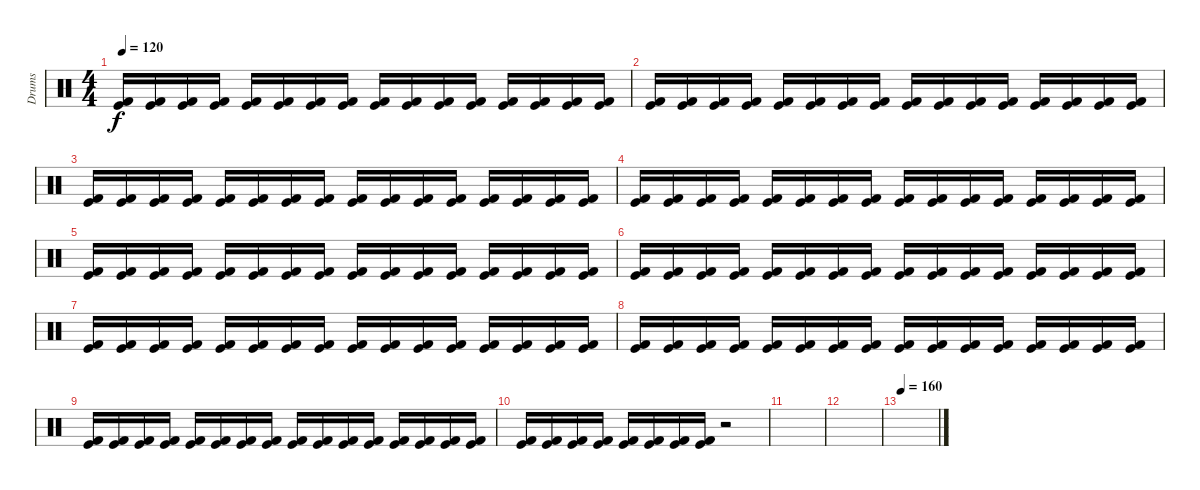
\track ("Drums" "Drums") {instrument percussion}
\staff {score}
\articulation defaults
\ts (4 4)
\tempo 120
\clef neutral
\ks c
("Kick (hit) 2" "Kick (hit)").16{dy f} ("Kick (hit) 2" "Kick (hit)").16 ("Kick (hit) 2" "Kick (hit)").16 ("Kick (hit) 2" "Kick (hit)").16 ("Kick (hit) 2" "Kick (hit)").16 ("Kick (hit) 2" "Kick (hit)").16 ("Kick (hit) 2" "Kick (hit)").16 ("Kick (hit) 2" "Kick (hit)").16 ("Kick (hit) 2" "Kick (hit)").16 ("Kick (hit) 2" "Kick (hit)").16 ("Kick (hit) 2" "Kick (hit)").16 ("Kick (hit) 2" "Kick (hit)").16 ("Kick (hit) 2" "Kick (hit)").16 ("Kick (hit) 2" "Kick (hit)").16 ("Kick (hit) 2" "Kick (hit)").16 ("Kick (hit) 2" "Kick (hit)").16 |
("Kick (hit) 2" "Kick (hit)").16 ("Kick (hit) 2" "Kick (hit)").16 ("Kick (hit) 2" "Kick (hit)").16 ("Kick (hit) 2" "Kick (hit)").16 ("Kick (hit) 2" "Kick (hit)").16 ("Kick (hit) 2" "Kick (hit)").16 ("Kick (hit) 2" "Kick (hit)").16 ("Kick (hit) 2" "Kick (hit)").16 ("Kick (hit) 2" "Kick (hit)").16 ("Kick (hit) 2" "Kick (hit)").16 ("Kick (hit) 2" "Kick (hit)").16 ("Kick (hit) 2" "Kick (hit)").16 ("Kick (hit) 2" "Kick (hit)").16 ("Kick (hit) 2" "Kick (hit)").16 ("Kick (hit) 2" "Kick (hit)").16 ("Kick (hit) 2" "Kick (hit)").16 |
("Kick (hit) 2" "Kick (hit)").16 ("Kick (hit) 2" "Kick (hit)").16 ("Kick (hit) 2" "Kick (hit)").16 ("Kick (hit) 2" "Kick (hit)").16 ("Kick (hit) 2" "Kick (hit)").16 ("Kick (hit) 2" "Kick (hit)").16 ("Kick (hit) 2" "Kick (hit)").16 ("Kick (hit) 2" "Kick (hit)").16 ("Kick (hit) 2" "Kick (hit)").16 ("Kick (hit) 2" "Kick (hit)").16 ("Kick (hit) 2" "Kick (hit)").16 ("Kick (hit) 2" "Kick (hit)").16 ("Kick (hit) 2" "Kick (hit)").16 ("Kick (hit) 2" "Kick (hit)").16 ("Kick (hit) 2" "Kick (hit)").16 ("Kick (hit) 2" "Kick (hit)").16 |
("Kick (hit) 2" "Kick (hit)").16 ("Kick (hit) 2" "Kick (hit)").16 ("Kick (hit) 2" "Kick (hit)").16 ("Kick (hit) 2" "Kick (hit)").16 ("Kick (hit) 2" "Kick (hit)").16 ("Kick (hit) 2" "Kick (hit)").16 ("Kick (hit) 2" "Kick (hit)").16 ("Kick (hit) 2" "Kick (hit)").16 ("Kick (hit) 2" "Kick (hit)").16 ("Kick (hit) 2" "Kick (hit)").16 ("Kick (hit) 2" "Kick (hit)").16 ("Kick (hit) 2" "Kick (hit)").16 ("Kick (hit) 2" "Kick (hit)").16 ("Kick (hit) 2" "Kick (hit)").16 ("Kick (hit) 2" "Kick (hit)").16 ("Kick (hit) 2" "Kick (hit)").16 |
("Kick (hit) 2" "Kick (hit)").16 ("Kick (hit) 2" "Kick (hit)").16 ("Kick (hit) 2" "Kick (hit)").16 ("Kick (hit) 2" "Kick (hit)").16 ("Kick (hit) 2" "Kick (hit)").16 ("Kick (hit) 2" "Kick (hit)").16 ("Kick (hit) 2" "Kick (hit)").16 ("Kick (hit) 2" "Kick (hit)").16 ("Kick (hit) 2" "Kick (hit)").16 ("Kick (hit) 2" "Kick (hit)").16 ("Kick (hit) 2" "Kick (hit)").16 ("Kick (hit) 2" "Kick (hit)").16 ("Kick (hit) 2" "Kick (hit)").16 ("Kick (hit) 2" "Kick (hit)").16 ("Kick (hit) 2" "Kick (hit)").16 ("Kick (hit) 2" "Kick (hit)").16 |
("Kick (hit) 2" "Kick (hit)").16 ("Kick (hit) 2" "Kick (hit)").16 ("Kick (hit) 2" "Kick (hit)").16 ("Kick (hit) 2" "Kick (hit)").16 ("Kick (hit) 2" "Kick (hit)").16 ("Kick (hit) 2" "Kick (hit)").16 ("Kick (hit) 2" "Kick (hit)").16 ("Kick (hit) 2" "Kick (hit)").16 ("Kick (hit) 2" "Kick (hit)").16 ("Kick (hit) 2" "Kick (hit)").16 ("Kick (hit) 2" "Kick (hit)").16 ("Kick (hit) 2" "Kick (hit)").16 ("Kick (hit) 2" "Kick (hit)").16 ("Kick (hit) 2" "Kick (hit)").16 ("Kick (hit) 2" "Kick (hit)").16 ("Kick (hit) 2" "Kick (hit)").16 |
("Kick (hit) 2" "Kick (hit)").16 ("Kick (hit) 2" "Kick (hit)").16 ("Kick (hit) 2" "Kick (hit)").16 ("Kick (hit) 2" "Kick (hit)").16 ("Kick (hit) 2" "Kick (hit)").16 ("Kick (hit) 2" "Kick (hit)").16 ("Kick (hit) 2" "Kick (hit)").16 ("Kick (hit) 2" "Kick (hit)").16 ("Kick (hit) 2" "Kick (hit)").16 ("Kick (hit) 2" "Kick (hit)").16 ("Kick (hit) 2" "Kick (hit)").16 ("Kick (hit) 2" "Kick (hit)").16 ("Kick (hit) 2" "Kick (hit)").16 ("Kick (hit) 2" "Kick (hit)").16 ("Kick (hit) 2" "Kick (hit)").16 ("Kick (hit) 2" "Kick (hit)").16 |
("Kick (hit) 2" "Kick (hit)").16 ("Kick (hit) 2" "Kick (hit)").16 ("Kick (hit) 2" "Kick (hit)").16 ("Kick (hit) 2" "Kick (hit)").16 ("Kick (hit) 2" "Kick (hit)").16 ("Kick (hit) 2" "Kick (hit)").16 ("Kick (hit) 2" "Kick (hit)").16 ("Kick (hit) 2" "Kick (hit)").16 ("Kick (hit) 2" "Kick (hit)").16 ("Kick (hit) 2" "Kick (hit)").16 ("Kick (hit) 2" "Kick (hit)").16 ("Kick (hit) 2" "Kick (hit)").16 ("Kick (hit) 2" "Kick (hit)").16 ("Kick (hit) 2" "Kick (hit)").16 ("Kick (hit) 2" "Kick (hit)").16 ("Kick (hit) 2" "Kick (hit)").16 |
("Kick (hit) 2" "Kick (hit)").16 ("Kick (hit) 2" "Kick (hit)").16 ("Kick (hit) 2" "Kick (hit)").16 ("Kick (hit) 2" "Kick (hit)").16 ("Kick (hit) 2" "Kick (hit)").16 ("Kick (hit) 2" "Kick (hit)").16 ("Kick (hit) 2" "Kick (hit)").16 ("Kick (hit) 2" "Kick (hit)").16 ("Kick (hit) 2" "Kick (hit)").16 ("Kick (hit) 2" "Kick (hit)").16 ("Kick (hit) 2" "Kick (hit)").16 ("Kick (hit) 2" "Kick (hit)").16 ("Kick (hit) 2" "Kick (hit)").16 ("Kick (hit) 2" "Kick (hit)").16 ("Kick (hit) 2" "Kick (hit)").16 ("Kick (hit) 2" "Kick (hit)").16 |
("Kick (hit) 2" "Kick (hit)").16 ("Kick (hit) 2" "Kick (hit)").16 ("Kick (hit) 2" "Kick (hit)").16 ("Kick (hit) 2" "Kick (hit)").16 ("Kick (hit) 2" "Kick (hit)").16 ("Kick (hit) 2" "Kick (hit)").16 ("Kick (hit) 2" "Kick (hit)").16 ("Kick (hit) 2" "Kick (hit)").16 r.2 |
|
|
\tempo 160
